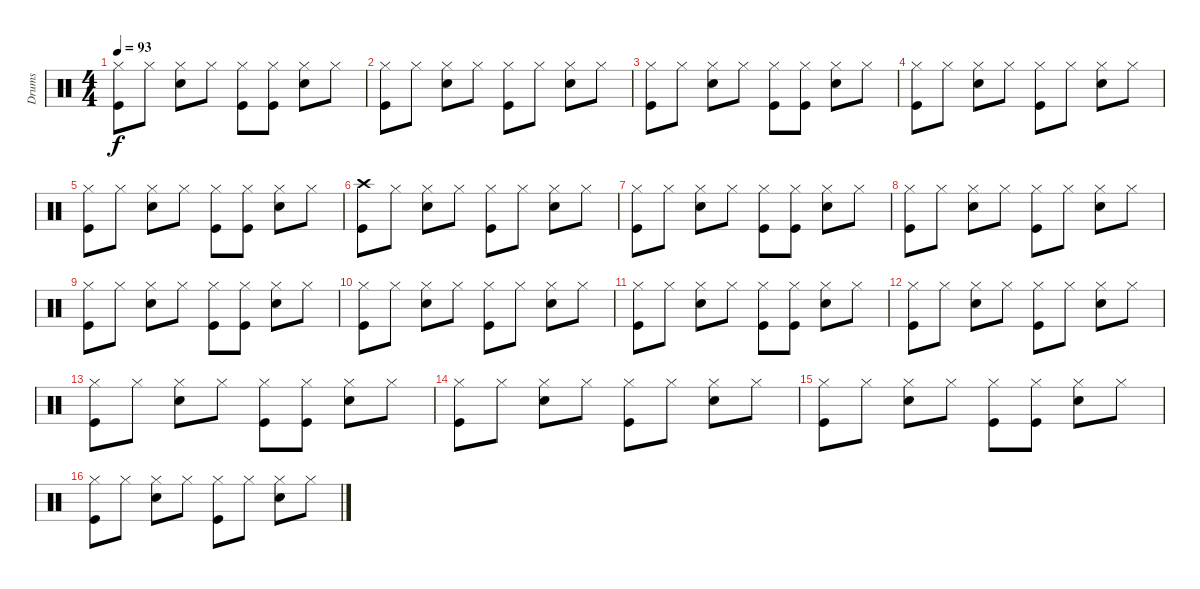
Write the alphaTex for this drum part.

\track ("Drums" "Drums") {instrument percussion}
\staff {score}
\articulation defaults
\ts (4 4)
\tempo 93
\clef neutral
\ks c
("Hi-Hat (closed)" "Kick (hit)").8{dy f} "Hi-Hat (closed)".8 ("Hi-Hat (closed)" "Snare (hit) 2").8 "Hi-Hat (closed)".8 ("Hi-Hat (closed)" "Kick (hit)").8 ("Hi-Hat (closed)" "Kick (hit)").8 ("Hi-Hat (closed)" "Snare (hit) 2").8 "Hi-Hat (closed)".8 |
("Hi-Hat (closed)" "Kick (hit)").8 "Hi-Hat (closed)".8 ("Hi-Hat (closed)" "Snare (hit) 2").8 "Hi-Hat (closed)".8 ("Hi-Hat (closed)" "Kick (hit)").8 "Hi-Hat (closed)".8 ("Hi-Hat (closed)" "Snare (hit) 2").8 "Hi-Hat (closed)".8 |
("Hi-Hat (closed)" "Kick (hit)").8 "Hi-Hat (closed)".8 ("Hi-Hat (closed)" "Snare (hit) 2").8 "Hi-Hat (closed)".8 ("Hi-Hat (closed)" "Kick (hit)").8 ("Hi-Hat (closed)" "Kick (hit)").8 ("Hi-Hat (closed)" "Snare (hit) 2").8 "Hi-Hat (closed)".8 |
("Hi-Hat (closed)" "Kick (hit)").8 "Hi-Hat (closed)".8 ("Hi-Hat (closed)" "Snare (hit) 2").8 "Hi-Hat (closed)".8 ("Hi-Hat (closed)" "Kick (hit)").8 "Hi-Hat (closed)".8 ("Hi-Hat (closed)" "Snare (hit) 2").8 "Hi-Hat (closed)".8 |
("Hi-Hat (closed)" "Kick (hit)").8 "Hi-Hat (closed)".8 ("Hi-Hat (closed)" "Snare (hit) 2").8 "Hi-Hat (closed)".8 ("Hi-Hat (closed)" "Kick (hit)").8 ("Hi-Hat (closed)" "Kick (hit)").8 ("Hi-Hat (closed)" "Snare (hit) 2").8 "Hi-Hat (closed)".8 |
("Crash high (hit)" "Kick (hit)").8 "Hi-Hat (closed)".8 ("Hi-Hat (closed)" "Snare (hit) 2").8 "Hi-Hat (closed)".8 ("Hi-Hat (closed)" "Kick (hit)").8 "Hi-Hat (closed)".8 ("Hi-Hat (closed)" "Snare (hit) 2").8 "Hi-Hat (closed)".8 |
("Hi-Hat (closed)" "Kick (hit)").8 "Hi-Hat (closed)".8 ("Hi-Hat (closed)" "Snare (hit) 2").8 "Hi-Hat (closed)".8 ("Hi-Hat (closed)" "Kick (hit)").8 ("Hi-Hat (closed)" "Kick (hit)").8 ("Hi-Hat (closed)" "Snare (hit) 2").8 "Hi-Hat (closed)".8 |
("Hi-Hat (closed)" "Kick (hit)").8 "Hi-Hat (closed)".8 ("Hi-Hat (closed)" "Snare (hit) 2").8 "Hi-Hat (closed)".8 ("Hi-Hat (closed)" "Kick (hit)").8 "Hi-Hat (closed)".8 ("Hi-Hat (closed)" "Snare (hit) 2").8 "Hi-Hat (closed)".8 |
("Hi-Hat (closed)" "Kick (hit)").8 "Hi-Hat (closed)".8 ("Hi-Hat (closed)" "Snare (hit) 2").8 "Hi-Hat (closed)".8 ("Hi-Hat (closed)" "Kick (hit)").8 ("Hi-Hat (closed)" "Kick (hit)").8 ("Hi-Hat (closed)" "Snare (hit) 2").8 "Hi-Hat (closed)".8 |
("Hi-Hat (closed)" "Kick (hit)").8 "Hi-Hat (closed)".8 ("Hi-Hat (closed)" "Snare (hit) 2").8 "Hi-Hat (closed)".8 ("Hi-Hat (closed)" "Kick (hit)").8 "Hi-Hat (closed)".8 ("Hi-Hat (closed)" "Snare (hit) 2").8 "Hi-Hat (closed)".8 |
("Hi-Hat (closed)" "Kick (hit)").8 "Hi-Hat (closed)".8 ("Hi-Hat (closed)" "Snare (hit) 2").8 "Hi-Hat (closed)".8 ("Hi-Hat (closed)" "Kick (hit)").8 ("Hi-Hat (closed)" "Kick (hit)").8 ("Hi-Hat (closed)" "Snare (hit) 2").8 "Hi-Hat (closed)".8 |
("Hi-Hat (closed)" "Kick (hit)").8 "Hi-Hat (closed)".8 ("Hi-Hat (closed)" "Snare (hit) 2").8 "Hi-Hat (closed)".8 ("Hi-Hat (closed)" "Kick (hit)").8 "Hi-Hat (closed)".8 ("Hi-Hat (closed)" "Snare (hit) 2").8 "Hi-Hat (closed)".8 |
("Hi-Hat (closed)" "Kick (hit)").8 "Hi-Hat (closed)".8 ("Hi-Hat (closed)" "Snare (hit) 2").8 "Hi-Hat (closed)".8 ("Hi-Hat (closed)" "Kick (hit)").8 ("Hi-Hat (closed)" "Kick (hit)").8 ("Hi-Hat (closed)" "Snare (hit) 2").8 "Hi-Hat (closed)".8 |
("Hi-Hat (closed)" "Kick (hit)").8 "Hi-Hat (closed)".8 ("Hi-Hat (closed)" "Snare (hit) 2").8 "Hi-Hat (closed)".8 ("Hi-Hat (closed)" "Kick (hit)").8 "Hi-Hat (closed)".8 ("Hi-Hat (closed)" "Snare (hit) 2").8 "Hi-Hat (closed)".8 |
("Hi-Hat (closed)" "Kick (hit)").8 "Hi-Hat (closed)".8 ("Hi-Hat (closed)" "Snare (hit) 2").8 "Hi-Hat (closed)".8 ("Hi-Hat (closed)" "Kick (hit)").8 ("Hi-Hat (closed)" "Kick (hit)").8 ("Hi-Hat (closed)" "Snare (hit) 2").8 "Hi-Hat (closed)".8 |
("Hi-Hat (closed)" "Kick (hit)").8 "Hi-Hat (closed)".8 ("Hi-Hat (closed)" "Snare (hit) 2").8 "Hi-Hat (closed)".8 ("Hi-Hat (closed)" "Kick (hit)").8 "Hi-Hat (closed)".8 ("Hi-Hat (closed)" "Snare (hit) 2").8 "Hi-Hat (closed)".8
